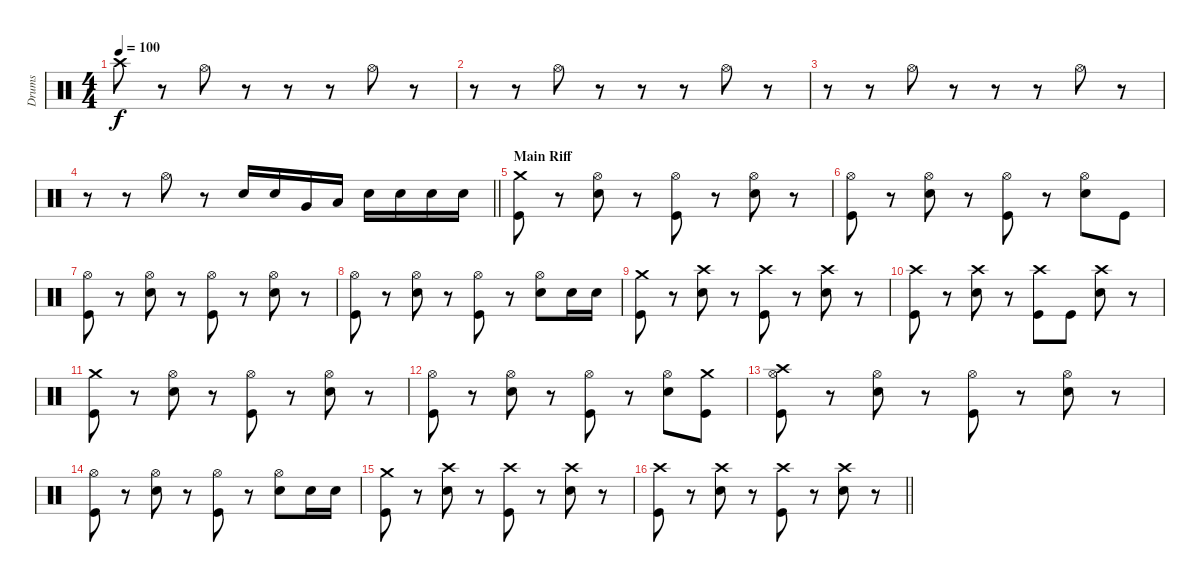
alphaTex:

\track ("Drums" "Drums") {instrument percussion}
\staff {score}
\articulation defaults
\ts (4 4)
\tempo 100
\clef neutral
\ks c "Crash high (hit)".8{dy f}
r.8 "Hi-Hat (open)".8 r.8 r.8 r.8 "Hi-Hat (open)".8 r.8 |
r.8 r.8 "Hi-Hat (open)".8 r.8 r.8 r.8 "Hi-Hat (open)".8 r.8 |
r.8 r.8 "Hi-Hat (open)".8 r.8 r.8 r.8 "Hi-Hat (open)".8 r.8 |
\barLineRight lightlight
r.8 r.8 "Hi-Hat (open)".8 r.8 "Electric Snare (hit)".16 "Electric Snare (hit)".16 "Very Low Tom (hit)".16 "Low Floor Tom (hit)".16 "Electric Snare (hit)".16 "Electric Snare (hit)".16 "Electric Snare (hit)".16 "Electric Snare (hit)".16 |
\section ("" "Main Riff")
("Crash medium (hit)" "Kick (hit)").8 r.8 ("Hi-Hat (open)" "Electric Snare (hit)").8 r.8 ("Hi-Hat (open)" "Kick (hit)").8 r.8 ("Hi-Hat (open)" "Electric Snare (hit)").8 r.8 |
("Hi-Hat (open)" "Kick (hit)").8 r.8 ("Hi-Hat (open)" "Electric Snare (hit)").8 r.8 ("Hi-Hat (open)" "Kick (hit)").8 r.8 ("Hi-Hat (open)" "Electric Snare (hit)").8 "Kick (hit)".8 |
("Hi-Hat (open)" "Kick (hit)").8 r.8 ("Hi-Hat (open)" "Electric Snare (hit)").8 r.8 ("Hi-Hat (open)" "Kick (hit)").8 r.8 ("Hi-Hat (open)" "Electric Snare (hit)").8 r.8 |
("Hi-Hat (open)" "Kick (hit)").8 r.8 ("Hi-Hat (open)" "Electric Snare (hit)").8 r.8 ("Hi-Hat (open)" "Kick (hit)").8 r.8 ("Hi-Hat (open)" "Electric Snare (hit)").8 "Electric Snare (hit)".16 "Electric Snare (hit)".16 |
("Crash medium (hit)" "Kick (hit)").8 r.8 ("Crash high (hit)" "Electric Snare (hit)").8 r.8 ("Crash high (hit)" "Kick (hit)").8 r.8 ("Crash high (hit)" "Electric Snare (hit)").8 r.8 |
("Crash high (hit)" "Kick (hit)").8 r.8 ("Crash high (hit)" "Electric Snare (hit)").8 r.8 ("Crash high (hit)" "Kick (hit)").8 "Kick (hit)".8 ("Crash high (hit)" "Electric Snare (hit)").8 r.8 |
("Crash medium (hit)" "Kick (hit)").8 r.8 ("Hi-Hat (open)" "Electric Snare (hit)").8 r.8 ("Hi-Hat (open)" "Kick (hit)").8 r.8 ("Hi-Hat (open)" "Electric Snare (hit)").8 r.8 |
("Hi-Hat (open)" "Kick (hit)").8 r.8 ("Hi-Hat (open)" "Electric Snare (hit)").8 r.8 ("Hi-Hat (open)" "Kick (hit)").8 r.8 ("Hi-Hat (open)" "Electric Snare (hit)").8 ("Crash medium (hit)" "Kick (hit)").8 |
("Crash high (hit)" "Hi-Hat (open)" "Kick (hit)").8 r.8 ("Hi-Hat (open)" "Electric Snare (hit)").8 r.8 ("Hi-Hat (open)" "Kick (hit)").8 r.8 ("Hi-Hat (open)" "Electric Snare (hit)").8 r.8 |
("Hi-Hat (open)" "Kick (hit)").8 r.8 ("Hi-Hat (open)" "Electric Snare (hit)").8 r.8 ("Hi-Hat (open)" "Kick (hit)").8 r.8 ("Hi-Hat (open)" "Electric Snare (hit)").8 "Electric Snare (hit)".16 "Electric Snare (hit)".16 |
("Crash medium (hit)" "Kick (hit)").8 r.8 ("Crash high (hit)" "Electric Snare (hit)").8 r.8 ("Crash high (hit)" "Kick (hit)").8 r.8 ("Crash high (hit)" "Electric Snare (hit)").8 r.8 |
\barLineRight lightlight
("Crash high (hit)" "Kick (hit)").8 r.8 ("Crash high (hit)" "Electric Snare (hit)").8 r.8 ("Crash high (hit)" "Kick (hit)").8 r.8 ("Crash high (hit)" "Electric Snare (hit)").8 r.8
